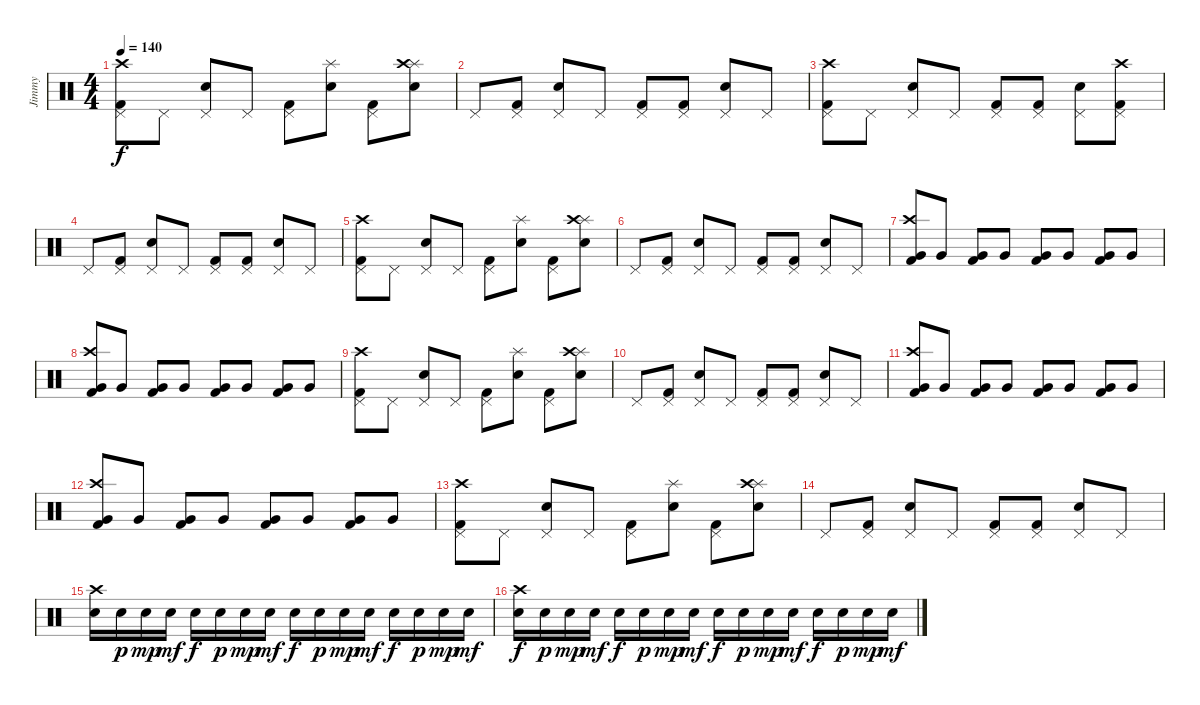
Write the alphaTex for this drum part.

\track ("Jimmy" "Jimmy") {instrument percussion}
\staff {score}
\articulation defaults
\ts (4 4)
\tempo 140
\clef neutral
\ks c
("Kick (hit) 2" "Pedal Hi-Hat (hit)" "Crash high (hit)").8{dy f} "Pedal Hi-Hat (hit)".8 ("Snare (hit) 2" "Pedal Hi-Hat (hit)").8 "Pedal Hi-Hat (hit)".8 ("Kick (hit) 2" "Pedal Hi-Hat (hit)").8 ("Snare (hit) 2" "Splash (hit)").8 ("Kick (hit) 2" "Pedal Hi-Hat (hit)").8 ("Snare (hit) 2" "Splash (hit)" "Crash high (hit)").8 |
"Pedal Hi-Hat (hit)".8 ("Kick (hit) 2" "Pedal Hi-Hat (hit)").8 ("Snare (hit) 2" "Pedal Hi-Hat (hit)").8 "Pedal Hi-Hat (hit)".8 ("Kick (hit) 2" "Pedal Hi-Hat (hit)").8 ("Kick (hit) 2" "Pedal Hi-Hat (hit)").8 ("Snare (hit) 2" "Pedal Hi-Hat (hit)").8 "Pedal Hi-Hat (hit)".8 |
("Kick (hit) 2" "Pedal Hi-Hat (hit)" "Crash high (hit)").8 "Pedal Hi-Hat (hit)".8 ("Snare (hit) 2" "Pedal Hi-Hat (hit)").8 "Pedal Hi-Hat (hit)".8 ("Kick (hit) 2" "Pedal Hi-Hat (hit)").8 ("Kick (hit) 2" "Pedal Hi-Hat (hit)").8 ("Snare (hit) 2" "Pedal Hi-Hat (hit)").8 ("Kick (hit) 2" "Pedal Hi-Hat (hit)" "Crash high (hit)").8 |
"Pedal Hi-Hat (hit)".8 ("Kick (hit) 2" "Pedal Hi-Hat (hit)").8 ("Snare (hit) 2" "Pedal Hi-Hat (hit)").8 "Pedal Hi-Hat (hit)".8 ("Kick (hit) 2" "Pedal Hi-Hat (hit)").8 ("Kick (hit) 2" "Pedal Hi-Hat (hit)").8 ("Snare (hit) 2" "Pedal Hi-Hat (hit)").8 "Pedal Hi-Hat (hit)".8 |
("Kick (hit) 2" "Pedal Hi-Hat (hit)" "Crash high (hit)").8 "Pedal Hi-Hat (hit)".8 ("Snare (hit) 2" "Pedal Hi-Hat (hit)").8 "Pedal Hi-Hat (hit)".8 ("Kick (hit) 2" "Pedal Hi-Hat (hit)").8 ("Snare (hit) 2" "Splash (hit)").8 ("Kick (hit) 2" "Pedal Hi-Hat (hit)").8 ("Snare (hit) 2" "Splash (hit)" "Crash high (hit)").8 |
"Pedal Hi-Hat (hit)".8 ("Kick (hit) 2" "Pedal Hi-Hat (hit)").8 ("Snare (hit) 2" "Pedal Hi-Hat (hit)").8 "Pedal Hi-Hat (hit)".8 ("Kick (hit) 2" "Pedal Hi-Hat (hit)").8 ("Kick (hit) 2" "Pedal Hi-Hat (hit)").8 ("Snare (hit) 2" "Pedal Hi-Hat (hit)").8 "Pedal Hi-Hat (hit)".8 |
("Kick (hit) 2" "Very Low Tom (hit)" "Crash high (hit)").8 "Very Low Tom (hit)".8 ("Kick (hit) 2" "Very Low Tom (hit)").8 "Very Low Tom (hit)".8 ("Kick (hit) 2" "Very Low Tom (hit)").8 "Very Low Tom (hit)".8 ("Kick (hit) 2" "Very Low Tom (hit)").8 "Very Low Tom (hit)".8 |
("Kick (hit) 2" "Very Low Tom (hit)" "Crash high (hit)").8 "Very Low Tom (hit)".8 ("Kick (hit) 2" "Very Low Tom (hit)").8 "Very Low Tom (hit)".8 ("Kick (hit) 2" "Very Low Tom (hit)").8 "Very Low Tom (hit)".8 ("Kick (hit) 2" "Very Low Tom (hit)").8 "Very Low Tom (hit)".8 |
("Kick (hit) 2" "Pedal Hi-Hat (hit)" "Crash high (hit)").8 "Pedal Hi-Hat (hit)".8 ("Snare (hit) 2" "Pedal Hi-Hat (hit)").8 "Pedal Hi-Hat (hit)".8 ("Kick (hit) 2" "Pedal Hi-Hat (hit)").8 ("Snare (hit) 2" "Splash (hit)").8 ("Kick (hit) 2" "Pedal Hi-Hat (hit)").8 ("Snare (hit) 2" "Splash (hit)" "Crash high (hit)").8 |
"Pedal Hi-Hat (hit)".8 ("Kick (hit) 2" "Pedal Hi-Hat (hit)").8 ("Snare (hit) 2" "Pedal Hi-Hat (hit)").8 "Pedal Hi-Hat (hit)".8 ("Kick (hit) 2" "Pedal Hi-Hat (hit)").8 ("Kick (hit) 2" "Pedal Hi-Hat (hit)").8 ("Snare (hit) 2" "Pedal Hi-Hat (hit)").8 "Pedal Hi-Hat (hit)".8 |
("Kick (hit) 2" "Very Low Tom (hit)" "Crash high (hit)").8 "Very Low Tom (hit)".8 ("Kick (hit) 2" "Very Low Tom (hit)").8 "Very Low Tom (hit)".8 ("Kick (hit) 2" "Very Low Tom (hit)").8 "Very Low Tom (hit)".8 ("Kick (hit) 2" "Very Low Tom (hit)").8 "Very Low Tom (hit)".8 |
("Kick (hit) 2" "Very Low Tom (hit)" "Crash high (hit)").8 "Very Low Tom (hit)".8 ("Kick (hit) 2" "Very Low Tom (hit)").8 "Very Low Tom (hit)".8 ("Kick (hit) 2" "Very Low Tom (hit)").8 "Very Low Tom (hit)".8 ("Kick (hit) 2" "Very Low Tom (hit)").8 "Very Low Tom (hit)".8 |
("Kick (hit) 2" "Pedal Hi-Hat (hit)" "Crash high (hit)").8 "Pedal Hi-Hat (hit)".8 ("Snare (hit) 2" "Pedal Hi-Hat (hit)").8 "Pedal Hi-Hat (hit)".8 ("Kick (hit) 2" "Pedal Hi-Hat (hit)").8 ("Snare (hit) 2" "Splash (hit)").8 ("Kick (hit) 2" "Pedal Hi-Hat (hit)").8 ("Snare (hit) 2" "Splash (hit)" "Crash high (hit)").8 |
"Pedal Hi-Hat (hit)".8 ("Kick (hit) 2" "Pedal Hi-Hat (hit)").8 ("Snare (hit) 2" "Pedal Hi-Hat (hit)").8 "Pedal Hi-Hat (hit)".8 ("Kick (hit) 2" "Pedal Hi-Hat (hit)").8 ("Kick (hit) 2" "Pedal Hi-Hat (hit)").8 ("Snare (hit) 2" "Pedal Hi-Hat (hit)").8 "Pedal Hi-Hat (hit)".8 |
("Snare (hit) 2" "Crash high (hit)").16 "Snare (hit) 2".16{dy p} "Snare (hit) 2".16{dy mp} "Snare (hit) 2".16{dy mf} "Snare (hit) 2".16{dy f} "Snare (hit) 2".16{dy p} "Snare (hit) 2".16{dy mp} "Snare (hit) 2".16{dy mf} "Snare (hit) 2".16{dy f} "Snare (hit) 2".16{dy p} "Snare (hit) 2".16{dy mp} "Snare (hit) 2".16{dy mf} "Snare (hit) 2".16{dy f} "Snare (hit) 2".16{dy p} "Snare (hit) 2".16{dy mp} "Snare (hit) 2".16{dy mf} |
("Snare (hit) 2" "Crash high (hit)").16{dy f} "Snare (hit) 2".16{dy p} "Snare (hit) 2".16{dy mp} "Snare (hit) 2".16{dy mf} "Snare (hit) 2".16{dy f} "Snare (hit) 2".16{dy p} "Snare (hit) 2".16{dy mp} "Snare (hit) 2".16{dy mf} "Snare (hit) 2".16{dy f} "Snare (hit) 2".16{dy p} "Snare (hit) 2".16{dy mp} "Snare (hit) 2".16{dy mf} "Snare (hit) 2".16{dy f} "Snare (hit) 2".16{dy p} "Snare (hit) 2".16{dy mp} "Snare (hit) 2".16{dy mf}
